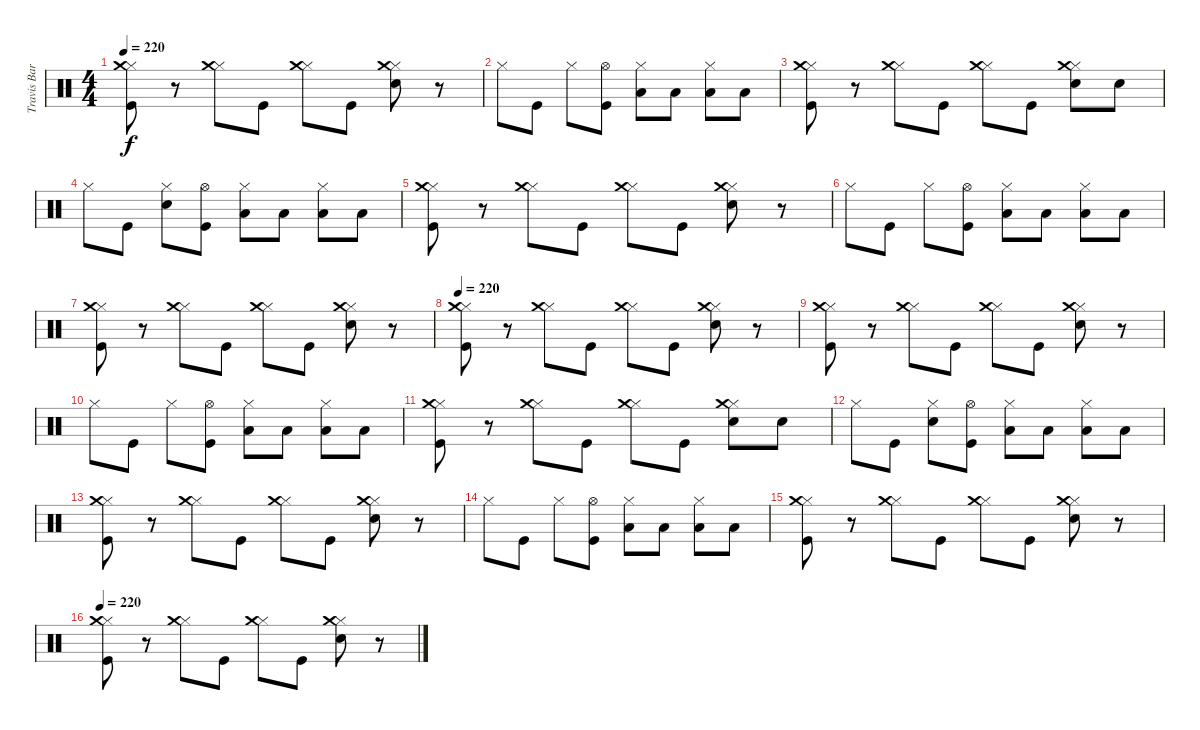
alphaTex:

\track ("Travis Barker" "Travis Bar") {instrument percussion}
\staff {score}
\articulation defaults
\ts (4 4)
\tempo 220
\clef neutral
\ks c
("Kick (hit)" "Hi-Hat (closed)" "Crash medium (hit)").8{dy f} r.8 ("Hi-Hat (closed)" "Crash medium (hit)").8 "Kick (hit)".8 ("Hi-Hat (closed)" "Crash medium (hit)").8 "Kick (hit)".8 ("Electric Snare (hit)" "Hi-Hat (closed)" "Crash medium (hit)").8 r.8 |
"Hi-Hat (closed)".8 "Kick (hit)".8 "Hi-Hat (closed)".8 ("Kick (hit)" "Hi-Hat (open)").8 ("Low Tom (hit)" "Hi-Hat (closed)").8 "Low Tom (hit)".8 ("Low Floor Tom (hit)" "Hi-Hat (closed)").8 "Low Floor Tom (hit)".8 |
("Kick (hit)" "Hi-Hat (closed)" "Crash medium (hit)").8 r.8 ("Hi-Hat (closed)" "Crash medium (hit)").8 "Kick (hit)".8 ("Hi-Hat (closed)" "Crash medium (hit)").8 "Kick (hit)".8 ("Electric Snare (hit)" "Hi-Hat (closed)" "Crash medium (hit)").8 "Electric Snare (hit)".8 |
"Hi-Hat (closed)".8 "Kick (hit)".8 ("Electric Snare (hit)" "Hi-Hat (closed)").8 ("Kick (hit)" "Hi-Hat (open)").8 ("Low Tom (hit)" "Hi-Hat (closed)").8 "Low Tom (hit)".8 ("Low Floor Tom (hit)" "Hi-Hat (closed)").8 "Low Floor Tom (hit)".8 |
("Kick (hit)" "Hi-Hat (closed)" "Crash medium (hit)").8 r.8 ("Hi-Hat (closed)" "Crash medium (hit)").8 "Kick (hit)".8 ("Hi-Hat (closed)" "Crash medium (hit)").8 "Kick (hit)".8 ("Electric Snare (hit)" "Hi-Hat (closed)" "Crash medium (hit)").8 r.8 |
"Hi-Hat (closed)".8 "Kick (hit)".8 "Hi-Hat (closed)".8 ("Kick (hit)" "Hi-Hat (open)").8 ("Low Tom (hit)" "Hi-Hat (closed)").8 "Low Tom (hit)".8 ("Low Floor Tom (hit)" "Hi-Hat (closed)").8 "Low Floor Tom (hit)".8 |
("Kick (hit)" "Hi-Hat (closed)" "Crash medium (hit)").8 r.8 ("Hi-Hat (closed)" "Crash medium (hit)").8 "Kick (hit)".8 ("Hi-Hat (closed)" "Crash medium (hit)").8 "Kick (hit)".8 ("Electric Snare (hit)" "Hi-Hat (closed)" "Crash medium (hit)").8 r.8 |
\tempo 220
("Kick (hit)" "Hi-Hat (closed)" "Crash medium (hit)").8 r.8 ("Hi-Hat (closed)" "Crash medium (hit)").8 "Kick (hit)".8 ("Hi-Hat (closed)" "Crash medium (hit)").8 "Kick (hit)".8 ("Electric Snare (hit)" "Hi-Hat (closed)" "Crash medium (hit)").8 r.8 |
("Kick (hit)" "Hi-Hat (closed)" "Crash medium (hit)").8 r.8 ("Hi-Hat (closed)" "Crash medium (hit)").8 "Kick (hit)".8 ("Hi-Hat (closed)" "Crash medium (hit)").8 "Kick (hit)".8 ("Electric Snare (hit)" "Hi-Hat (closed)" "Crash medium (hit)").8 r.8 |
"Hi-Hat (closed)".8 "Kick (hit)".8 "Hi-Hat (closed)".8 ("Kick (hit)" "Hi-Hat (open)").8 ("Low Tom (hit)" "Hi-Hat (closed)").8 "Low Tom (hit)".8 ("Low Floor Tom (hit)" "Hi-Hat (closed)").8 "Low Floor Tom (hit)".8 |
("Kick (hit)" "Hi-Hat (closed)" "Crash medium (hit)").8 r.8 ("Hi-Hat (closed)" "Crash medium (hit)").8 "Kick (hit)".8 ("Hi-Hat (closed)" "Crash medium (hit)").8 "Kick (hit)".8 ("Electric Snare (hit)" "Hi-Hat (closed)" "Crash medium (hit)").8 "Electric Snare (hit)".8 |
"Hi-Hat (closed)".8 "Kick (hit)".8 ("Electric Snare (hit)" "Hi-Hat (closed)").8 ("Kick (hit)" "Hi-Hat (open)").8 ("Low Tom (hit)" "Hi-Hat (closed)").8 "Low Tom (hit)".8 ("Low Floor Tom (hit)" "Hi-Hat (closed)").8 "Low Floor Tom (hit)".8 |
("Kick (hit)" "Hi-Hat (closed)" "Crash medium (hit)").8 r.8 ("Hi-Hat (closed)" "Crash medium (hit)").8 "Kick (hit)".8 ("Hi-Hat (closed)" "Crash medium (hit)").8 "Kick (hit)".8 ("Electric Snare (hit)" "Hi-Hat (closed)" "Crash medium (hit)").8 r.8 |
"Hi-Hat (closed)".8 "Kick (hit)".8 "Hi-Hat (closed)".8 ("Kick (hit)" "Hi-Hat (open)").8 ("Low Tom (hit)" "Hi-Hat (closed)").8 "Low Tom (hit)".8 ("Low Floor Tom (hit)" "Hi-Hat (closed)").8 "Low Floor Tom (hit)".8 |
("Kick (hit)" "Hi-Hat (closed)" "Crash medium (hit)").8 r.8 ("Hi-Hat (closed)" "Crash medium (hit)").8 "Kick (hit)".8 ("Hi-Hat (closed)" "Crash medium (hit)").8 "Kick (hit)".8 ("Electric Snare (hit)" "Hi-Hat (closed)" "Crash medium (hit)").8 r.8 |
\tempo 220
("Kick (hit)" "Hi-Hat (closed)" "Crash medium (hit)").8 r.8 ("Hi-Hat (closed)" "Crash medium (hit)").8 "Kick (hit)".8 ("Hi-Hat (closed)" "Crash medium (hit)").8 "Kick (hit)".8 ("Electric Snare (hit)" "Hi-Hat (closed)" "Crash medium (hit)").8 r.8
